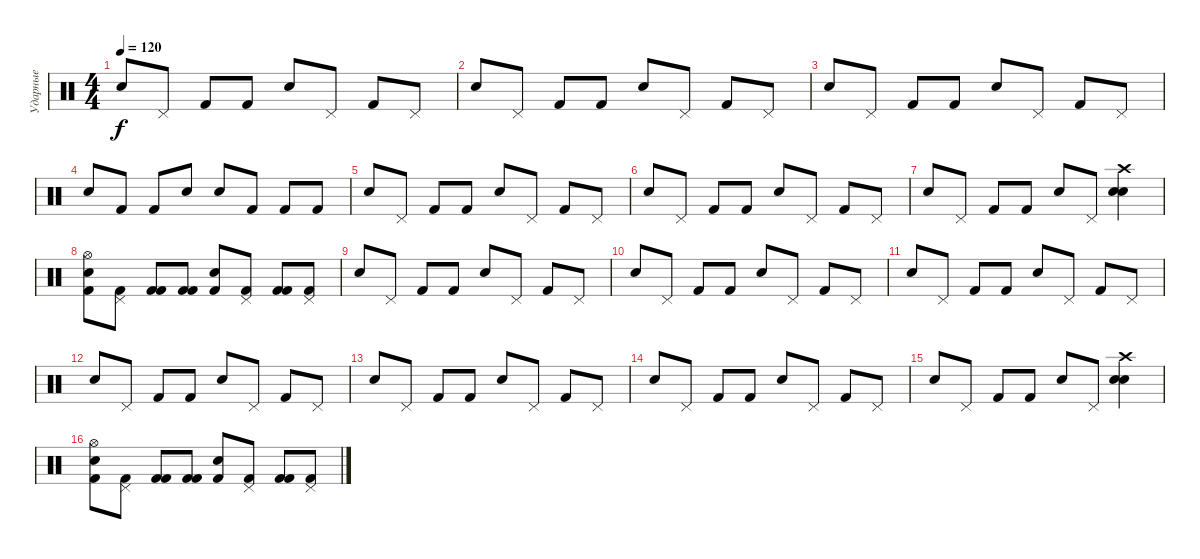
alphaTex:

\track ("Ударные" "Ударные") {instrument percussion}
\staff {score}
\articulation defaults
\ts (4 4)
\tempo 120
\clef neutral
\ks c "Electric Snare (hit)".8{dy f} "Pedal Hi-Hat (hit)".8 "Kick (hit) 2".8 "Kick (hit) 2".8 "Electric Snare (hit)".8 "Pedal Hi-Hat (hit)".8 "Kick (hit) 2".8 "Pedal Hi-Hat (hit)".8
|
"Electric Snare (hit)".8 "Pedal Hi-Hat (hit)".8 "Kick (hit) 2".8 "Kick (hit) 2".8 "Electric Snare (hit)".8 "Pedal Hi-Hat (hit)".8 "Kick (hit) 2".8 "Pedal Hi-Hat (hit)".8 |
"Electric Snare (hit)".8 "Pedal Hi-Hat (hit)".8 "Kick (hit) 2".8 "Kick (hit) 2".8 "Electric Snare (hit)".8 "Pedal Hi-Hat (hit)".8 "Kick (hit) 2".8 "Pedal Hi-Hat (hit)".8 |
"Snare (hit) 2".8 "Kick (hit) 2".8 "Kick (hit) 2".8 "Snare (hit) 2".8 "Snare (hit) 2".8 "Kick (hit) 2".8 "Kick (hit) 2".8 "Kick (hit) 2".8 |
"Electric Snare (hit)".8 "Pedal Hi-Hat (hit)".8 "Kick (hit) 2".8 "Kick (hit) 2".8 "Electric Snare (hit)".8 "Pedal Hi-Hat (hit)".8 "Kick (hit) 2".8 "Pedal Hi-Hat (hit)".8 |
"Electric Snare (hit)".8 "Pedal Hi-Hat (hit)".8 "Kick (hit) 2".8 "Kick (hit) 2".8 "Electric Snare (hit)".8 "Pedal Hi-Hat (hit)".8 "Kick (hit) 2".8 "Pedal Hi-Hat (hit)".8 |
"Electric Snare (hit)".8 "Pedal Hi-Hat (hit)".8 "Kick (hit) 2".8 "Kick (hit) 2".8 "Electric Snare (hit)".8 "Pedal Hi-Hat (hit)".8 ("Electric Snare (hit)" "Snare (hit) 2" "Crash high (hit)").4 |
("Electric Snare (hit)" "Hi-Hat (open)" "Kick (hit) 2").8 ("Pedal Hi-Hat (hit)" "Kick (hit) 2").8 ("Kick (hit) 2" "Kick (hit) 2").8 ("Kick (hit) 2" "Kick (hit) 2").8 ("Electric Snare (hit)" "Kick (hit) 2").8 ("Pedal Hi-Hat (hit)" "Kick (hit) 2").8 ("Kick (hit) 2" "Kick (hit) 2").8 ("Pedal Hi-Hat (hit)" "Kick (hit) 2").8 |
"Electric Snare (hit)".8 "Pedal Hi-Hat (hit)".8 "Kick (hit) 2".8 "Kick (hit) 2".8 "Electric Snare (hit)".8 "Pedal Hi-Hat (hit)".8 "Kick (hit) 2".8 "Pedal Hi-Hat (hit)".8 |
"Electric Snare (hit)".8 "Pedal Hi-Hat (hit)".8 "Kick (hit) 2".8 "Kick (hit) 2".8 "Electric Snare (hit)".8 "Pedal Hi-Hat (hit)".8 "Kick (hit) 2".8 "Pedal Hi-Hat (hit)".8 |
"Electric Snare (hit)".8 "Pedal Hi-Hat (hit)".8 "Kick (hit) 2".8 "Kick (hit) 2".8 "Electric Snare (hit)".8 "Pedal Hi-Hat (hit)".8 "Kick (hit) 2".8 "Pedal Hi-Hat (hit)".8 |
"Electric Snare (hit)".8 "Pedal Hi-Hat (hit)".8 "Kick (hit) 2".8 "Kick (hit) 2".8 "Electric Snare (hit)".8 "Pedal Hi-Hat (hit)".8 "Kick (hit) 2".8 "Pedal Hi-Hat (hit)".8 |
"Electric Snare (hit)".8 "Pedal Hi-Hat (hit)".8 "Kick (hit) 2".8 "Kick (hit) 2".8 "Electric Snare (hit)".8 "Pedal Hi-Hat (hit)".8 "Kick (hit) 2".8 "Pedal Hi-Hat (hit)".8 |
"Electric Snare (hit)".8 "Pedal Hi-Hat (hit)".8 "Kick (hit) 2".8 "Kick (hit) 2".8 "Electric Snare (hit)".8 "Pedal Hi-Hat (hit)".8 "Kick (hit) 2".8 "Pedal Hi-Hat (hit)".8 |
"Electric Snare (hit)".8 "Pedal Hi-Hat (hit)".8 "Kick (hit) 2".8 "Kick (hit) 2".8 "Electric Snare (hit)".8 "Pedal Hi-Hat (hit)".8 ("Electric Snare (hit)" "Snare (hit) 2" "Crash high (hit)").4 |
("Electric Snare (hit)" "Hi-Hat (open)" "Kick (hit) 2").8 ("Pedal Hi-Hat (hit)" "Kick (hit) 2").8 ("Kick (hit) 2" "Kick (hit) 2").8 ("Kick (hit) 2" "Kick (hit) 2").8 ("Electric Snare (hit)" "Kick (hit) 2").8 ("Pedal Hi-Hat (hit)" "Kick (hit) 2").8 ("Kick (hit) 2" "Kick (hit) 2").8 ("Pedal Hi-Hat (hit)" "Kick (hit) 2").8
